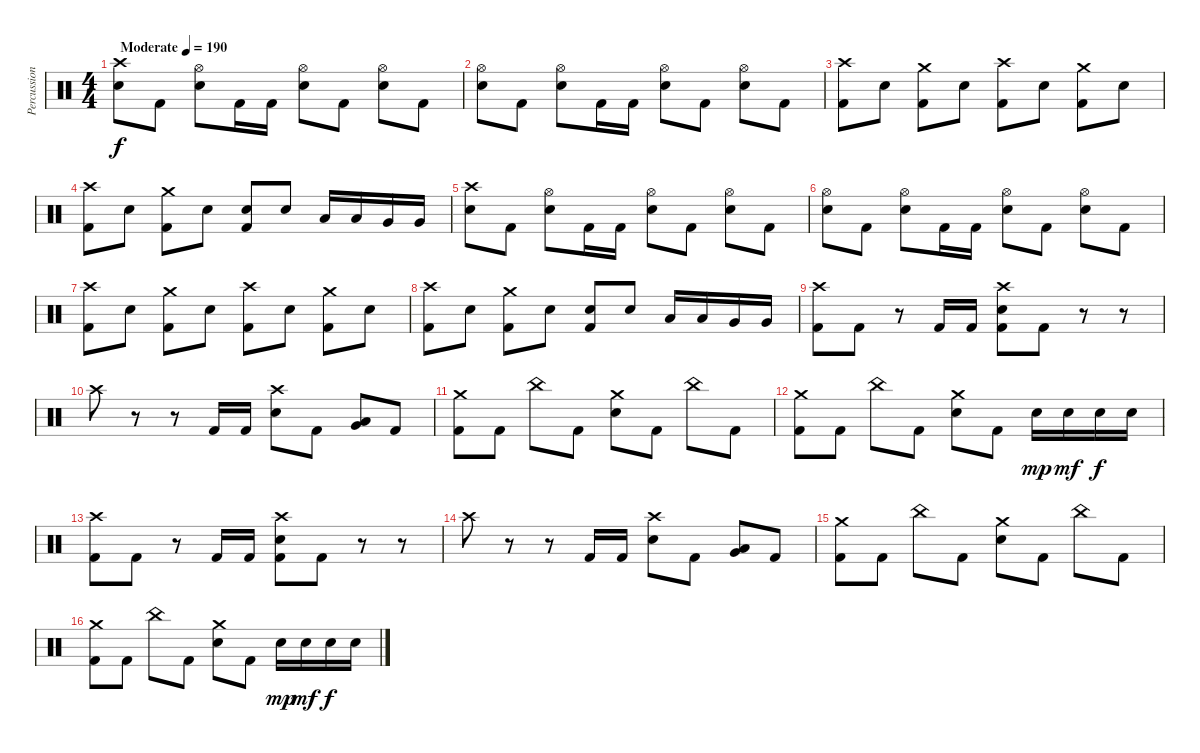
\track ("Percussion" "Percussion") {instrument percussion}
\staff {score}
\articulation defaults
\ts (4 4)
\tempo (190 "Moderate")
\clef neutral
\ks c
("Crash high (hit)" "Electric Snare (hit)").8{dy f} "Kick (hit) 2".8 ("Hi-Hat (open)" "Electric Snare (hit)").8 "Kick (hit) 2".16 "Kick (hit) 2".16 ("Hi-Hat (open)" "Electric Snare (hit)").8 "Kick (hit) 2".8 ("Hi-Hat (open)" "Electric Snare (hit)").8 "Kick (hit) 2".8 |
("Hi-Hat (open)" "Electric Snare (hit)").8 "Kick (hit) 2".8 ("Hi-Hat (open)" "Electric Snare (hit)").8 "Kick (hit) 2".16 "Kick (hit) 2".16 ("Hi-Hat (open)" "Electric Snare (hit)").8 "Kick (hit) 2".8 ("Hi-Hat (open)" "Electric Snare (hit)").8 "Kick (hit) 2".8 |
("Crash high (hit)" "Kick (hit) 2").8 "Electric Snare (hit)".8 ("Crash medium (hit)" "Kick (hit) 2").8 "Electric Snare (hit)".8 ("Crash high (hit)" "Kick (hit) 2").8 "Electric Snare (hit)".8 ("Crash medium (hit)" "Kick (hit) 2").8 "Electric Snare (hit)".8 |
("Crash high (hit)" "Kick (hit) 2").8 "Electric Snare (hit)".8 ("Crash medium (hit)" "Kick (hit) 2").8 "Electric Snare (hit)".8 ("Electric Snare (hit)" "Kick (hit) 2").8 "Electric Snare (hit)".8 "Low Tom (hit)".16 "Low Tom (hit)".16 "Very Low Tom (hit)".16 "Very Low Tom (hit)".16 |
("Crash high (hit)" "Electric Snare (hit)").8 "Kick (hit) 2".8 ("Hi-Hat (open)" "Electric Snare (hit)").8 "Kick (hit) 2".16 "Kick (hit) 2".16 ("Hi-Hat (open)" "Electric Snare (hit)").8 "Kick (hit) 2".8 ("Hi-Hat (open)" "Electric Snare (hit)").8 "Kick (hit) 2".8 |
("Hi-Hat (open)" "Electric Snare (hit)").8 "Kick (hit) 2".8 ("Hi-Hat (open)" "Electric Snare (hit)").8 "Kick (hit) 2".16 "Kick (hit) 2".16 ("Hi-Hat (open)" "Electric Snare (hit)").8 "Kick (hit) 2".8 ("Hi-Hat (open)" "Electric Snare (hit)").8 "Kick (hit) 2".8 |
("Crash high (hit)" "Kick (hit) 2").8 "Electric Snare (hit)".8 ("Crash medium (hit)" "Kick (hit) 2").8 "Electric Snare (hit)".8 ("Crash high (hit)" "Kick (hit) 2").8 "Electric Snare (hit)".8 ("Crash medium (hit)" "Kick (hit) 2").8 "Electric Snare (hit)".8 |
("Crash high (hit)" "Kick (hit) 2").8 "Electric Snare (hit)".8 ("Crash medium (hit)" "Kick (hit) 2").8 "Electric Snare (hit)".8 ("Electric Snare (hit)" "Kick (hit) 2").8 "Electric Snare (hit)".8 "Low Tom (hit)".16 "Low Tom (hit)".16 "Very Low Tom (hit)".16 "Very Low Tom (hit)".16 |
("Crash high (hit)" "Kick (hit) 2").8 "Kick (hit) 2".8 r.8 "Kick (hit) 2".16 "Kick (hit) 2".16 ("Crash high (hit)" "Electric Snare (hit)" "Kick (hit) 2").8 "Kick (hit) 2".8 r.8 r.8 |
"Crash high (hit)".8 r.8 r.8 "Kick (hit) 2".16 "Kick (hit) 2".16 ("Crash high (hit)" "Electric Snare (hit)").8 "Kick (hit) 2".8 ("Very Low Tom (hit)" "Low Tom (hit)").8 "Kick (hit) 2".8 |
("Crash medium (hit)" "Kick (hit) 2").8 "Kick (hit) 2".8 "China (hit)".8 "Kick (hit) 2".8 ("Crash medium (hit)" "Electric Snare (hit)").8 "Kick (hit) 2".8 "China (hit)".8 "Kick (hit) 2".8 |
("Crash medium (hit)" "Kick (hit) 2").8 "Kick (hit) 2".8 "China (hit)".8 "Kick (hit) 2".8 ("Crash medium (hit)" "Electric Snare (hit)").8 "Kick (hit) 2".8 "Electric Snare (hit)".16{dy mp} "Electric Snare (hit)".16{dy mf} "Electric Snare (hit)".16{dy f} "Electric Snare (hit)".16 |
("Crash high (hit)" "Kick (hit) 2").8 "Kick (hit) 2".8 r.8 "Kick (hit) 2".16 "Kick (hit) 2".16 ("Crash high (hit)" "Electric Snare (hit)" "Kick (hit) 2").8 "Kick (hit) 2".8 r.8 r.8 |
"Crash high (hit)".8 r.8 r.8 "Kick (hit) 2".16 "Kick (hit) 2".16 ("Crash high (hit)" "Electric Snare (hit)").8 "Kick (hit) 2".8 ("Very Low Tom (hit)" "Low Tom (hit)").8 "Kick (hit) 2".8 |
("Crash medium (hit)" "Kick (hit) 2").8 "Kick (hit) 2".8 "China (hit)".8 "Kick (hit) 2".8 ("Crash medium (hit)" "Electric Snare (hit)").8 "Kick (hit) 2".8 "China (hit)".8 "Kick (hit) 2".8 |
("Crash medium (hit)" "Kick (hit) 2").8 "Kick (hit) 2".8 "China (hit)".8 "Kick (hit) 2".8 ("Crash medium (hit)" "Electric Snare (hit)").8 "Kick (hit) 2".8 "Electric Snare (hit)".16{dy mp} "Electric Snare (hit)".16{dy mf} "Electric Snare (hit)".16{dy f} "Electric Snare (hit)".16
